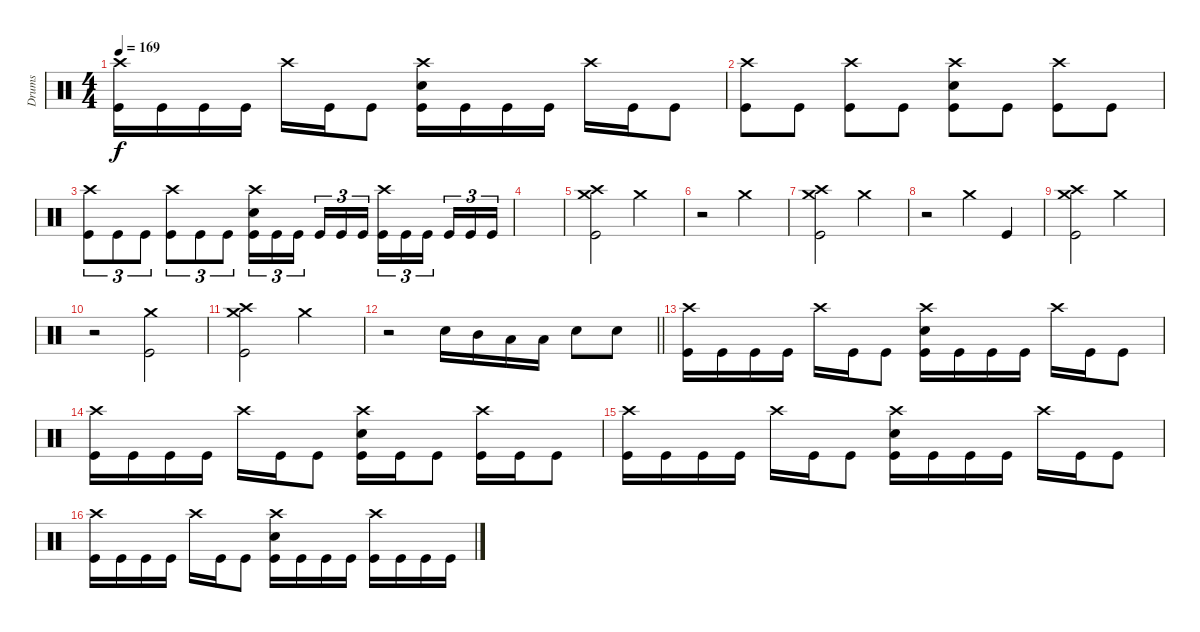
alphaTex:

\track ("Drums" "Drums") {instrument percussion}
\staff
\articulation defaults
\ts (4 4)
\tempo 169
\clef neutral
\ks c
("Crash high (hit)" "Kick (hit)").16{dy f} "Kick (hit)".16 "Kick (hit)".16 "Kick (hit)".16 "Crash high (hit)".16 "Kick (hit)".16 "Kick (hit)".8 ("Crash high (hit)" "Electric Snare (hit)" "Kick (hit)").16 "Kick (hit)".16 "Kick (hit)".16 "Kick (hit)".16 "Crash high (hit)".16 "Kick (hit)".16 "Kick (hit)".8 |
("Crash high (hit)" "Kick (hit)").8 "Kick (hit)".8 ("Crash high (hit)" "Kick (hit)").8 "Kick (hit)".8 ("Crash high (hit)" "Electric Snare (hit)" "Kick (hit)").8 "Kick (hit)".8 ("Crash high (hit)" "Kick (hit)").8 "Kick (hit)".8 |
("Crash high (hit)" "Kick (hit)").8{tu (3 2)} "Kick (hit)".8{tu (3 2)} "Kick (hit)".8{tu (3 2)} ("Crash high (hit)" "Kick (hit)").8{tu (3 2)} "Kick (hit)".8{tu (3 2)} "Kick (hit)".8{tu (3 2)} ("Crash high (hit)" "Electric Snare (hit)" "Kick (hit)").16{tu (3 2)} "Kick (hit)".16{tu (3 2)} "Kick (hit)".16{tu (3 2) beam splitsecondary} "Kick (hit)".16{tu (3 2)} "Kick (hit)".16{tu (3 2)} "Kick (hit)".16{tu (3 2)} ("Crash high (hit)" "Kick (hit)").16{tu (3 2)} "Kick (hit)".16{tu (3 2)} "Kick (hit)".16{tu (3 2) beam splitsecondary} "Kick (hit)".16{tu (3 2)} "Kick (hit)".16{tu (3 2)} "Kick (hit)".16{tu (3 2)} |
|
("Crash high (hit)" "Crash medium (hit)" "Kick (hit)").2 "Crash medium (hit)".2 |
r.2 "Crash medium (hit)".2 |
("Crash high (hit)" "Crash medium (hit)" "Kick (hit)").2 "Crash medium (hit)".2 |
r.2 "Crash medium (hit)".4 "Kick (hit)".4 |
("Crash high (hit)" "Crash medium (hit)" "Kick (hit)").2 "Crash medium (hit)".2 |
r.2 ("Crash medium (hit)" "Kick (hit)").2 |
("Crash high (hit)" "Crash medium (hit)" "Kick (hit)").2 "Crash medium (hit)".2 |
\barLineRight lightlight
r.2 "Electric Snare (hit)".16 "Mid Tom (hit)".16 "Low Tom (hit)".16 "Low Tom (hit)".16 "Electric Snare (hit)".8 "Electric Snare (hit)".8 |
("Crash high (hit)" "Kick (hit)").16 "Kick (hit)".16 "Kick (hit)".16 "Kick (hit)".16 "Crash high (hit)".16 "Kick (hit)".16 "Kick (hit)".8 ("Crash high (hit)" "Electric Snare (hit)" "Kick (hit)").16 "Kick (hit)".16 "Kick (hit)".16 "Kick (hit)".16 "Crash high (hit)".16 "Kick (hit)".16 "Kick (hit)".8 |
("Crash high (hit)" "Kick (hit)").16 "Kick (hit)".16 "Kick (hit)".16 "Kick (hit)".16 "Crash high (hit)".16 "Kick (hit)".16 "Kick (hit)".8 ("Crash high (hit)" "Electric Snare (hit)" "Kick (hit)").16 "Kick (hit)".16 "Kick (hit)".8 ("Crash high (hit)" "Kick (hit)").16 "Kick (hit)".16 "Kick (hit)".8 |
("Crash high (hit)" "Kick (hit)").16 "Kick (hit)".16 "Kick (hit)".16 "Kick (hit)".16 "Crash high (hit)".16 "Kick (hit)".16 "Kick (hit)".8 ("Crash high (hit)" "Electric Snare (hit)" "Kick (hit)").16 "Kick (hit)".16 "Kick (hit)".16 "Kick (hit)".16 "Crash high (hit)".16 "Kick (hit)".16 "Kick (hit)".8 |
("Crash high (hit)" "Kick (hit)").16 "Kick (hit)".16 "Kick (hit)".16 "Kick (hit)".16 "Crash high (hit)".16 "Kick (hit)".16 "Kick (hit)".8 ("Crash high (hit)" "Electric Snare (hit)" "Kick (hit)").16 "Kick (hit)".16 "Kick (hit)".16 "Kick (hit)".16 ("Crash high (hit)" "Kick (hit)").16 "Kick (hit)".16 "Kick (hit)".16 "Kick (hit)".16
